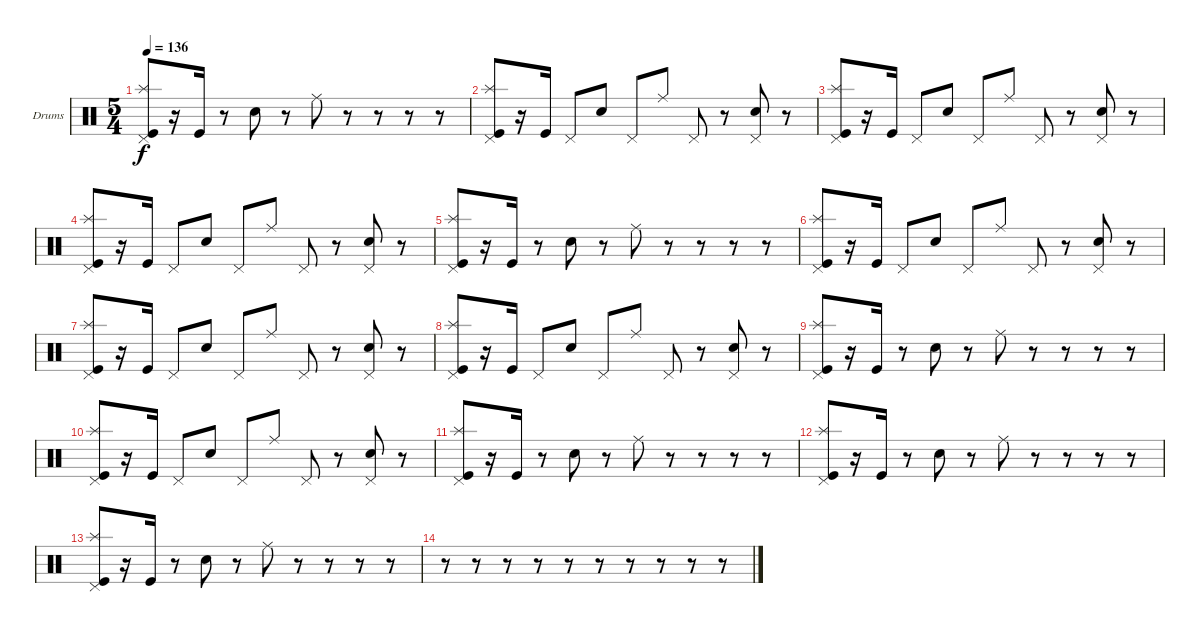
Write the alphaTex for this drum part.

\bracketExtendMode groupsimilarinstruments
\firstSystemTrackNameOrientation horizontal
\otherSystemsTrackNameOrientation horizontal
\track ("Drumkit" "Drums") {instrument percussion}
\staff {score}
\articulation defaults
\ts (5 4)
\tempo 136
\clef neutral
\ks c
("Pedal Hi-Hat (hit)" "Splash (hit)" "Kick (hit)").8{dy f} r.16 "Kick (hit)".16 r.8 "Snare (hit) 2".8 r.8 "Ride (middle)".8 r.8 r.8 r.8 r.8 |
("Splash (hit)" "Pedal Hi-Hat (hit)" "Kick (hit)").8 r.16 "Kick (hit)".16 "Pedal Hi-Hat (hit)".8 "Snare (hit) 2".8 "Pedal Hi-Hat (hit)".8 "Ride (middle)".8 "Pedal Hi-Hat (hit)".8 r.8 ("Snare (hit) 2" "Pedal Hi-Hat (hit)").8 r.8 |
("Splash (hit)" "Pedal Hi-Hat (hit)" "Kick (hit)").8 r.16 "Kick (hit)".16 "Pedal Hi-Hat (hit)".8 "Snare (hit) 2".8 "Pedal Hi-Hat (hit)".8 "Ride (middle)".8 "Pedal Hi-Hat (hit)".8 r.8 ("Snare (hit) 2" "Pedal Hi-Hat (hit)").8 r.8 |
("Splash (hit)" "Pedal Hi-Hat (hit)" "Kick (hit)").8 r.16 "Kick (hit)".16 "Pedal Hi-Hat (hit)".8 "Snare (hit) 2".8 "Pedal Hi-Hat (hit)".8 "Ride (middle)".8 "Pedal Hi-Hat (hit)".8 r.8 ("Snare (hit) 2" "Pedal Hi-Hat (hit)").8 r.8 |
("Pedal Hi-Hat (hit)" "Splash (hit)" "Kick (hit)").8 r.16 "Kick (hit)".16 r.8 "Snare (hit) 2".8 r.8 "Ride (middle)".8 r.8 r.8 r.8 r.8 |
("Splash (hit)" "Pedal Hi-Hat (hit)" "Kick (hit)").8 r.16 "Kick (hit)".16 "Pedal Hi-Hat (hit)".8 "Snare (hit) 2".8 "Pedal Hi-Hat (hit)".8 "Ride (middle)".8 "Pedal Hi-Hat (hit)".8 r.8 ("Snare (hit) 2" "Pedal Hi-Hat (hit)").8 r.8 |
("Splash (hit)" "Pedal Hi-Hat (hit)" "Kick (hit)").8 r.16 "Kick (hit)".16 "Pedal Hi-Hat (hit)".8 "Snare (hit) 2".8 "Pedal Hi-Hat (hit)".8 "Ride (middle)".8 "Pedal Hi-Hat (hit)".8 r.8 ("Snare (hit) 2" "Pedal Hi-Hat (hit)").8 r.8 |
("Splash (hit)" "Pedal Hi-Hat (hit)" "Kick (hit)").8 r.16 "Kick (hit)".16 "Pedal Hi-Hat (hit)".8 "Snare (hit) 2".8 "Pedal Hi-Hat (hit)".8 "Ride (middle)".8 "Pedal Hi-Hat (hit)".8 r.8 ("Snare (hit) 2" "Pedal Hi-Hat (hit)").8 r.8 |
("Pedal Hi-Hat (hit)" "Splash (hit)" "Kick (hit)").8 r.16 "Kick (hit)".16 r.8 "Snare (hit) 2".8 r.8 "Ride (middle)".8 r.8 r.8 r.8 r.8 |
("Splash (hit)" "Pedal Hi-Hat (hit)" "Kick (hit)").8 r.16 "Kick (hit)".16 "Pedal Hi-Hat (hit)".8 "Snare (hit) 2".8 "Pedal Hi-Hat (hit)".8 "Ride (middle)".8 "Pedal Hi-Hat (hit)".8 r.8 ("Snare (hit) 2" "Pedal Hi-Hat (hit)").8 r.8 |
("Pedal Hi-Hat (hit)" "Splash (hit)" "Kick (hit)").8 r.16 "Kick (hit)".16 r.8 "Snare (hit) 2".8 r.8 "Ride (middle)".8 r.8 r.8 r.8 r.8 |
("Pedal Hi-Hat (hit)" "Splash (hit)" "Kick (hit)").8 r.16 "Kick (hit)".16 r.8 "Snare (hit) 2".8 r.8 "Ride (middle)".8 r.8 r.8 r.8 r.8 |
("Pedal Hi-Hat (hit)" "Splash (hit)" "Kick (hit)").8 r.16 "Kick (hit)".16 r.8 "Snare (hit) 2".8 r.8 "Ride (middle)".8 r.8 r.8 r.8 r.8 |
r.8 r.8 r.8 r.8 r.8 r.8 r.8 r.8 r.8 r.8
